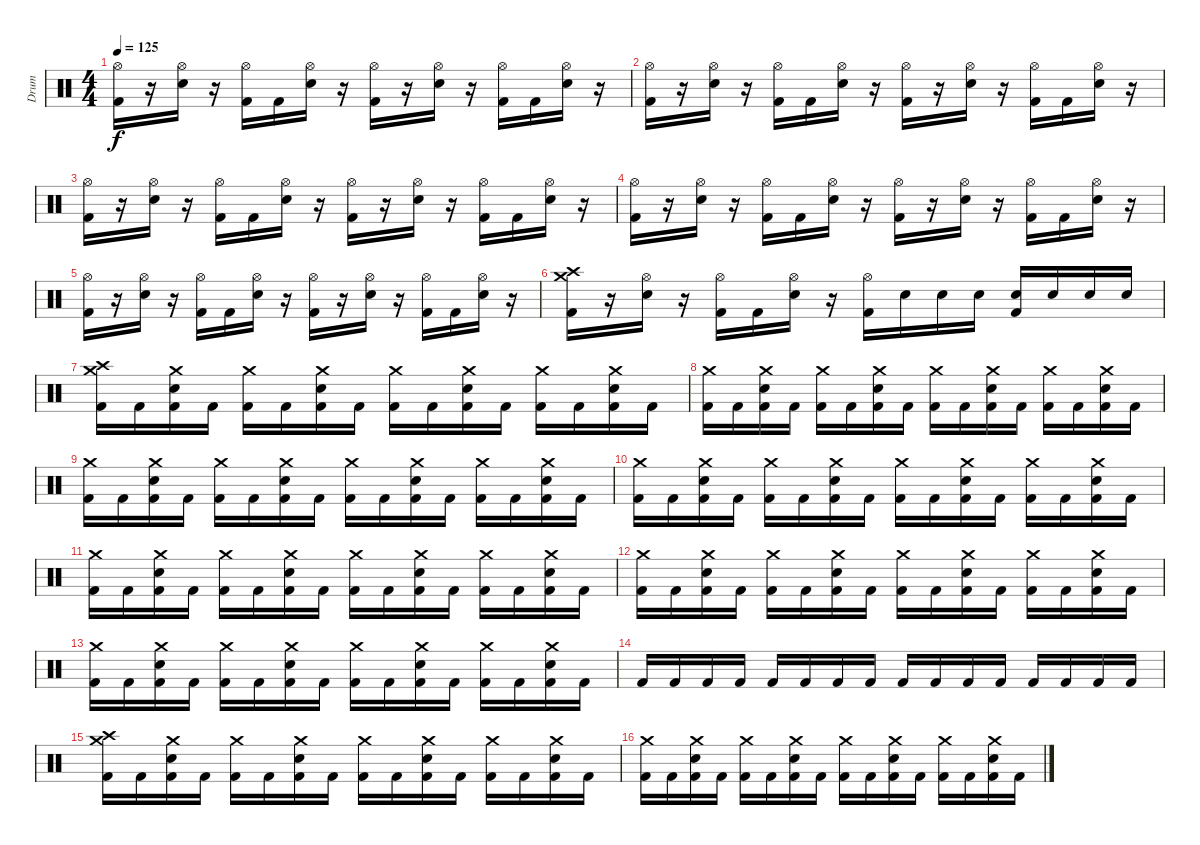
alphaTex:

\track ("Drum" "Drum") {instrument percussion}
\staff {score}
\articulation defaults
\ts (4 4)
\tempo 125
\clef neutral
\ks c
("Hi-Hat (open)" "Kick (hit) 2").16{dy f} r.16 ("Hi-Hat (open)" "Electric Snare (hit)").16 r.16 ("Hi-Hat (open)" "Kick (hit) 2").16 "Kick (hit) 2".16 ("Hi-Hat (open)" "Electric Snare (hit)").16 r.16 ("Hi-Hat (open)" "Kick (hit) 2").16 r.16 ("Hi-Hat (open)" "Electric Snare (hit)").16 r.16 ("Hi-Hat (open)" "Kick (hit) 2").16 "Kick (hit) 2".16 ("Hi-Hat (open)" "Electric Snare (hit)").16 r.16 |
("Hi-Hat (open)" "Kick (hit) 2").16 r.16 ("Hi-Hat (open)" "Electric Snare (hit)").16 r.16 ("Hi-Hat (open)" "Kick (hit) 2").16 "Kick (hit) 2".16 ("Hi-Hat (open)" "Electric Snare (hit)").16 r.16 ("Hi-Hat (open)" "Kick (hit) 2").16 r.16 ("Hi-Hat (open)" "Electric Snare (hit)").16 r.16 ("Hi-Hat (open)" "Kick (hit) 2").16 "Kick (hit) 2".16 ("Hi-Hat (open)" "Electric Snare (hit)").16 r.16 |
("Hi-Hat (open)" "Kick (hit) 2").16 r.16 ("Hi-Hat (open)" "Electric Snare (hit)").16 r.16 ("Hi-Hat (open)" "Kick (hit) 2").16 "Kick (hit) 2".16 ("Hi-Hat (open)" "Electric Snare (hit)").16 r.16 ("Hi-Hat (open)" "Kick (hit) 2").16 r.16 ("Hi-Hat (open)" "Electric Snare (hit)").16 r.16 ("Hi-Hat (open)" "Kick (hit) 2").16 "Kick (hit) 2".16 ("Hi-Hat (open)" "Electric Snare (hit)").16 r.16 |
("Hi-Hat (open)" "Kick (hit) 2").16 r.16 ("Hi-Hat (open)" "Electric Snare (hit)").16 r.16 ("Hi-Hat (open)" "Kick (hit) 2").16 "Kick (hit) 2".16 ("Hi-Hat (open)" "Electric Snare (hit)").16 r.16 ("Hi-Hat (open)" "Kick (hit) 2").16 r.16 ("Hi-Hat (open)" "Electric Snare (hit)").16 r.16 ("Hi-Hat (open)" "Kick (hit) 2").16 "Kick (hit) 2".16 ("Hi-Hat (open)" "Electric Snare (hit)").16 r.16 |
("Hi-Hat (open)" "Kick (hit) 2").16 r.16 ("Hi-Hat (open)" "Electric Snare (hit)").16 r.16 ("Hi-Hat (open)" "Kick (hit) 2").16 "Kick (hit) 2".16 ("Hi-Hat (open)" "Electric Snare (hit)").16 r.16 ("Hi-Hat (open)" "Kick (hit) 2").16 r.16 ("Hi-Hat (open)" "Electric Snare (hit)").16 r.16 ("Hi-Hat (open)" "Kick (hit) 2").16 "Kick (hit) 2".16 ("Hi-Hat (open)" "Electric Snare (hit)").16 r.16 |
("Crash high (hit)" "Crash medium (hit)" "Kick (hit) 2").16 r.16 ("Hi-Hat (open)" "Electric Snare (hit)").16 r.16 ("Hi-Hat (open)" "Kick (hit) 2").16 "Kick (hit) 2".16 ("Hi-Hat (open)" "Electric Snare (hit)").16 r.16 ("Hi-Hat (open)" "Kick (hit) 2").16 "Electric Snare (hit)".16 "Electric Snare (hit)".16 "Electric Snare (hit)".16 ("Kick (hit) 2" "Electric Snare (hit)").16 "Electric Snare (hit)".16 "Electric Snare (hit)".16 "Electric Snare (hit)".16 |
("Crash high (hit)" "Crash medium (hit)" "Kick (hit) 2").16 "Kick (hit) 2".16 ("Crash medium (hit)" "Kick (hit) 2" "Electric Snare (hit)").16 "Kick (hit) 2".16 ("Crash medium (hit)" "Kick (hit) 2").16 "Kick (hit) 2".16 ("Crash medium (hit)" "Kick (hit) 2" "Electric Snare (hit)").16 "Kick (hit) 2".16 ("Crash medium (hit)" "Kick (hit) 2").16 "Kick (hit) 2".16 ("Crash medium (hit)" "Kick (hit) 2" "Electric Snare (hit)").16 "Kick (hit) 2".16 ("Crash medium (hit)" "Kick (hit) 2").16 "Kick (hit) 2".16 ("Crash medium (hit)" "Kick (hit) 2" "Electric Snare (hit)").16 "Kick (hit) 2".16 |
("Crash medium (hit)" "Kick (hit) 2").16 "Kick (hit) 2".16 ("Crash medium (hit)" "Kick (hit) 2" "Electric Snare (hit)").16 "Kick (hit) 2".16 ("Crash medium (hit)" "Kick (hit) 2").16 "Kick (hit) 2".16 ("Crash medium (hit)" "Kick (hit) 2" "Electric Snare (hit)").16 "Kick (hit) 2".16 ("Crash medium (hit)" "Kick (hit) 2").16 "Kick (hit) 2".16 ("Crash medium (hit)" "Kick (hit) 2" "Electric Snare (hit)").16 "Kick (hit) 2".16 ("Crash medium (hit)" "Kick (hit) 2").16 "Kick (hit) 2".16 ("Crash medium (hit)" "Kick (hit) 2" "Electric Snare (hit)").16 "Kick (hit) 2".16 |
("Crash medium (hit)" "Kick (hit) 2").16 "Kick (hit) 2".16 ("Crash medium (hit)" "Kick (hit) 2" "Electric Snare (hit)").16 "Kick (hit) 2".16 ("Crash medium (hit)" "Kick (hit) 2").16 "Kick (hit) 2".16 ("Crash medium (hit)" "Kick (hit) 2" "Electric Snare (hit)").16 "Kick (hit) 2".16 ("Crash medium (hit)" "Kick (hit) 2").16 "Kick (hit) 2".16 ("Crash medium (hit)" "Kick (hit) 2" "Electric Snare (hit)").16 "Kick (hit) 2".16 ("Crash medium (hit)" "Kick (hit) 2").16 "Kick (hit) 2".16 ("Crash medium (hit)" "Kick (hit) 2" "Electric Snare (hit)").16 "Kick (hit) 2".16 |
("Crash medium (hit)" "Kick (hit) 2").16 "Kick (hit) 2".16 ("Crash medium (hit)" "Kick (hit) 2" "Electric Snare (hit)").16 "Kick (hit) 2".16 ("Crash medium (hit)" "Kick (hit) 2").16 "Kick (hit) 2".16 ("Crash medium (hit)" "Kick (hit) 2" "Electric Snare (hit)").16 "Kick (hit) 2".16 ("Crash medium (hit)" "Kick (hit) 2").16 "Kick (hit) 2".16 ("Crash medium (hit)" "Kick (hit) 2" "Electric Snare (hit)").16 "Kick (hit) 2".16 ("Crash medium (hit)" "Kick (hit) 2").16 "Kick (hit) 2".16 ("Crash medium (hit)" "Kick (hit) 2" "Electric Snare (hit)").16 "Kick (hit) 2".16 |
("Crash medium (hit)" "Kick (hit) 2").16 "Kick (hit) 2".16 ("Crash medium (hit)" "Kick (hit) 2" "Electric Snare (hit)").16 "Kick (hit) 2".16 ("Crash medium (hit)" "Kick (hit) 2").16 "Kick (hit) 2".16 ("Crash medium (hit)" "Kick (hit) 2" "Electric Snare (hit)").16 "Kick (hit) 2".16 ("Crash medium (hit)" "Kick (hit) 2").16 "Kick (hit) 2".16 ("Crash medium (hit)" "Kick (hit) 2" "Electric Snare (hit)").16 "Kick (hit) 2".16 ("Crash medium (hit)" "Kick (hit) 2").16 "Kick (hit) 2".16 ("Crash medium (hit)" "Kick (hit) 2" "Electric Snare (hit)").16 "Kick (hit) 2".16 |
("Crash medium (hit)" "Kick (hit) 2").16 "Kick (hit) 2".16 ("Crash medium (hit)" "Kick (hit) 2" "Electric Snare (hit)").16 "Kick (hit) 2".16 ("Crash medium (hit)" "Kick (hit) 2").16 "Kick (hit) 2".16 ("Crash medium (hit)" "Kick (hit) 2" "Electric Snare (hit)").16 "Kick (hit) 2".16 ("Crash medium (hit)" "Kick (hit) 2").16 "Kick (hit) 2".16 ("Crash medium (hit)" "Kick (hit) 2" "Electric Snare (hit)").16 "Kick (hit) 2".16 ("Crash medium (hit)" "Kick (hit) 2").16 "Kick (hit) 2".16 ("Crash medium (hit)" "Kick (hit) 2" "Electric Snare (hit)").16 "Kick (hit) 2".16 |
("Crash medium (hit)" "Kick (hit) 2").16 "Kick (hit) 2".16 ("Crash medium (hit)" "Kick (hit) 2" "Electric Snare (hit)").16 "Kick (hit) 2".16 ("Crash medium (hit)" "Kick (hit) 2").16 "Kick (hit) 2".16 ("Crash medium (hit)" "Kick (hit) 2" "Electric Snare (hit)").16 "Kick (hit) 2".16 ("Crash medium (hit)" "Kick (hit) 2").16 "Kick (hit) 2".16 ("Crash medium (hit)" "Kick (hit) 2" "Electric Snare (hit)").16 "Kick (hit) 2".16 ("Crash medium (hit)" "Kick (hit) 2").16 "Kick (hit) 2".16 ("Crash medium (hit)" "Kick (hit) 2" "Electric Snare (hit)").16 "Kick (hit) 2".16 |
"Kick (hit) 2".16 "Kick (hit) 2".16 "Kick (hit) 2".16 "Kick (hit) 2".16 "Kick (hit) 2".16 "Kick (hit) 2".16 "Kick (hit) 2".16 "Kick (hit) 2".16 "Kick (hit) 2".16 "Kick (hit) 2".16 "Kick (hit) 2".16 "Kick (hit) 2".16 "Kick (hit) 2".16 "Kick (hit) 2".16 "Kick (hit) 2".16 "Kick (hit) 2".16 |
("Crash high (hit)" "Crash medium (hit)" "Kick (hit) 2").16 "Kick (hit) 2".16 ("Crash medium (hit)" "Kick (hit) 2" "Electric Snare (hit)").16 "Kick (hit) 2".16 ("Crash medium (hit)" "Kick (hit) 2").16 "Kick (hit) 2".16 ("Crash medium (hit)" "Kick (hit) 2" "Electric Snare (hit)").16 "Kick (hit) 2".16 ("Crash medium (hit)" "Kick (hit) 2").16 "Kick (hit) 2".16 ("Crash medium (hit)" "Kick (hit) 2" "Electric Snare (hit)").16 "Kick (hit) 2".16 ("Crash medium (hit)" "Kick (hit) 2").16 "Kick (hit) 2".16 ("Crash medium (hit)" "Kick (hit) 2" "Electric Snare (hit)").16 "Kick (hit) 2".16 |
("Crash medium (hit)" "Kick (hit) 2").16 "Kick (hit) 2".16 ("Crash medium (hit)" "Kick (hit) 2" "Electric Snare (hit)").16 "Kick (hit) 2".16 ("Crash medium (hit)" "Kick (hit) 2").16 "Kick (hit) 2".16 ("Crash medium (hit)" "Kick (hit) 2" "Electric Snare (hit)").16 "Kick (hit) 2".16 ("Crash medium (hit)" "Kick (hit) 2").16 "Kick (hit) 2".16 ("Crash medium (hit)" "Kick (hit) 2" "Electric Snare (hit)").16 "Kick (hit) 2".16 ("Crash medium (hit)" "Kick (hit) 2").16 "Kick (hit) 2".16 ("Crash medium (hit)" "Kick (hit) 2" "Electric Snare (hit)").16 "Kick (hit) 2".16
